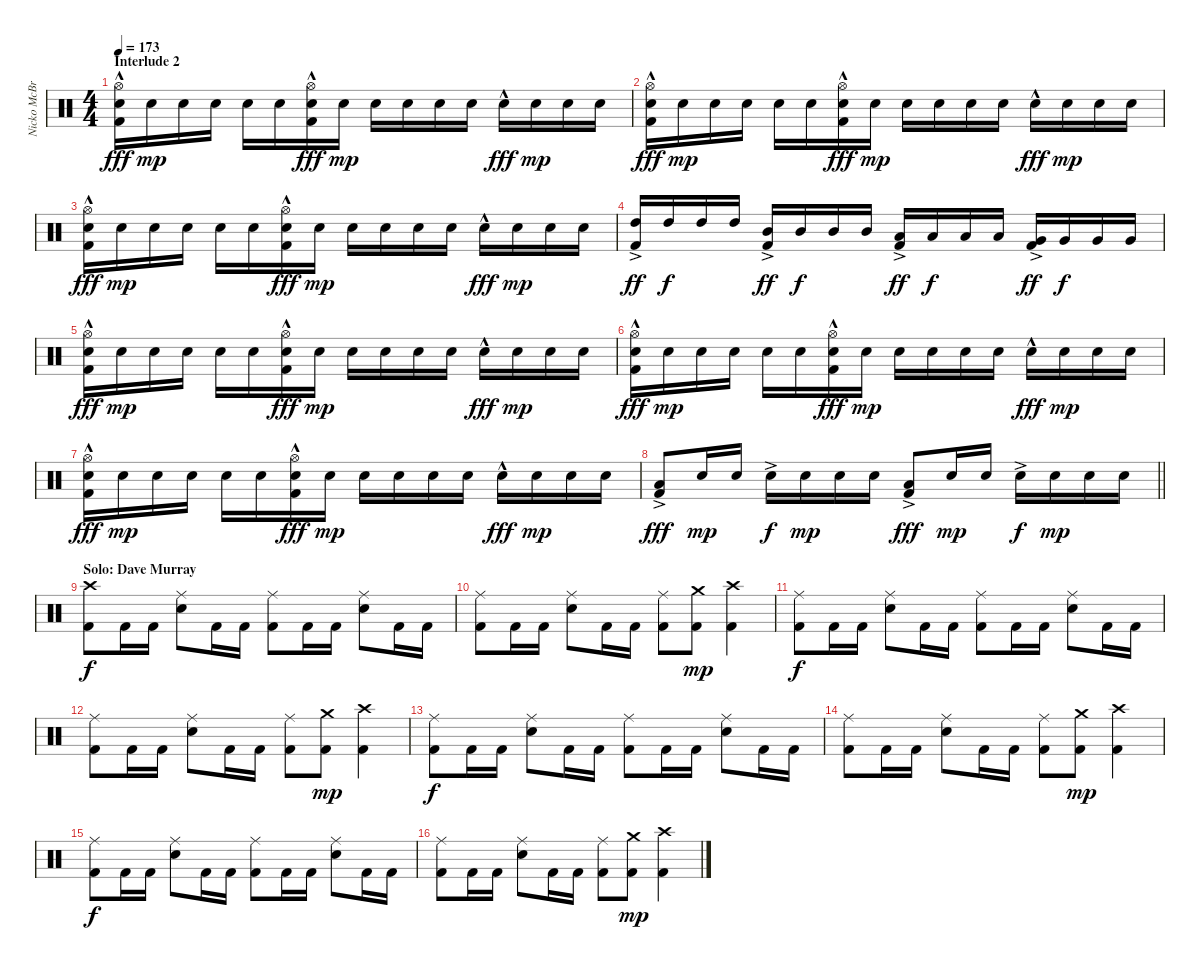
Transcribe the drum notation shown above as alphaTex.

\track ("Nicko McBrain" "Nicko McBr") {instrument percussion}
\staff {score}
\articulation defaults
\ts (4 4)
\section ("" "Interlude 2")
\tempo 173
\clef neutral
\ks c
("Hi-Hat (open)" "Electric Snare (hit)"{hac} "Kick (hit) 2").16{dy fff} "Electric Snare (hit)".16{dy mp} "Electric Snare (hit)".16 "Electric Snare (hit)".16 "Electric Snare (hit)".16 "Electric Snare (hit)".16 ("Hi-Hat (open)" "Electric Snare (hit)"{hac} "Kick (hit) 2").16{dy fff} "Electric Snare (hit)".16{dy mp} "Electric Snare (hit)".16 "Electric Snare (hit)".16 "Electric Snare (hit)".16 "Electric Snare (hit)".16 "Electric Snare (hit)"{hac}.16{dy fff} "Electric Snare (hit)".16{dy mp} "Electric Snare (hit)".16 "Electric Snare (hit)".16 |
("Hi-Hat (open)" "Electric Snare (hit)"{hac} "Kick (hit) 2").16{dy fff} "Electric Snare (hit)".16{dy mp} "Electric Snare (hit)".16 "Electric Snare (hit)".16 "Electric Snare (hit)".16 "Electric Snare (hit)".16 ("Hi-Hat (open)" "Electric Snare (hit)"{hac} "Kick (hit) 2").16{dy fff} "Electric Snare (hit)".16{dy mp} "Electric Snare (hit)".16 "Electric Snare (hit)".16 "Electric Snare (hit)".16 "Electric Snare (hit)".16 "Electric Snare (hit)"{hac}.16{dy fff} "Electric Snare (hit)".16{dy mp} "Electric Snare (hit)".16 "Electric Snare (hit)".16 |
("Hi-Hat (open)" "Electric Snare (hit)"{hac} "Kick (hit) 2").16{dy fff} "Electric Snare (hit)".16{dy mp} "Electric Snare (hit)".16 "Electric Snare (hit)".16 "Electric Snare (hit)".16 "Electric Snare (hit)".16 ("Hi-Hat (open)" "Electric Snare (hit)"{hac} "Kick (hit) 2").16{dy fff} "Electric Snare (hit)".16{dy mp} "Electric Snare (hit)".16 "Electric Snare (hit)".16 "Electric Snare (hit)".16 "Electric Snare (hit)".16 "Electric Snare (hit)"{hac}.16{dy fff} "Electric Snare (hit)".16{dy mp} "Electric Snare (hit)".16 "Electric Snare (hit)".16 |
("High Tom (hit)"{ac} "Kick (hit) 2"{ac}).16{dy ff} "High Tom (hit)".16{dy f} "High Tom (hit)".16 "High Tom (hit)".16 ("Mid Tom (hit)"{ac} "Kick (hit) 2"{ac}).16{dy ff} "Mid Tom (hit)".16{dy f} "Mid Tom (hit)".16 "Mid Tom (hit)".16 ("Low Tom (hit)"{ac} "Kick (hit) 2"{ac}).16{dy ff} "Low Tom (hit)".16{dy f} "Low Tom (hit)".16 "Low Tom (hit)".16 ("Very Low Tom (hit)"{ac} "Kick (hit) 2"{ac}).16{dy ff} "Very Low Tom (hit)".16{dy f} "Very Low Tom (hit)".16 "Very Low Tom (hit)".16 |
("Hi-Hat (open)" "Electric Snare (hit)"{hac} "Kick (hit) 2").16{dy fff} "Electric Snare (hit)".16{dy mp} "Electric Snare (hit)".16 "Electric Snare (hit)".16 "Electric Snare (hit)".16 "Electric Snare (hit)".16 ("Hi-Hat (open)" "Electric Snare (hit)"{hac} "Kick (hit) 2").16{dy fff} "Electric Snare (hit)".16{dy mp} "Electric Snare (hit)".16 "Electric Snare (hit)".16 "Electric Snare (hit)".16 "Electric Snare (hit)".16 "Electric Snare (hit)"{hac}.16{dy fff} "Electric Snare (hit)".16{dy mp} "Electric Snare (hit)".16 "Electric Snare (hit)".16 |
("Hi-Hat (open)" "Electric Snare (hit)"{hac} "Kick (hit) 2").16{dy fff} "Electric Snare (hit)".16{dy mp} "Electric Snare (hit)".16 "Electric Snare (hit)".16 "Electric Snare (hit)".16 "Electric Snare (hit)".16 ("Hi-Hat (open)" "Electric Snare (hit)"{hac} "Kick (hit) 2").16{dy fff} "Electric Snare (hit)".16{dy mp} "Electric Snare (hit)".16 "Electric Snare (hit)".16 "Electric Snare (hit)".16 "Electric Snare (hit)".16 "Electric Snare (hit)"{hac}.16{dy fff} "Electric Snare (hit)".16{dy mp} "Electric Snare (hit)".16 "Electric Snare (hit)".16 |
("Hi-Hat (open)" "Electric Snare (hit)"{hac} "Kick (hit) 2").16{dy fff} "Electric Snare (hit)".16{dy mp} "Electric Snare (hit)".16 "Electric Snare (hit)".16 "Electric Snare (hit)".16 "Electric Snare (hit)".16 ("Hi-Hat (open)" "Electric Snare (hit)"{hac} "Kick (hit) 2").16{dy fff} "Electric Snare (hit)".16{dy mp} "Electric Snare (hit)".16 "Electric Snare (hit)".16 "Electric Snare (hit)".16 "Electric Snare (hit)".16 "Electric Snare (hit)"{hac}.16{dy fff} "Electric Snare (hit)".16{dy mp} "Electric Snare (hit)".16 "Electric Snare (hit)".16 |
\barLineRight lightlight
("Low Tom (hit)"{ac} "Kick (hit) 2"{ac}).8{dy fff} "Electric Snare (hit)".16{dy mp} "Electric Snare (hit)".16 "Electric Snare (hit)"{ac}.16{dy f} "Electric Snare (hit)".16{dy mp} "Electric Snare (hit)".16 "Electric Snare (hit)".16 ("Low Tom (hit)"{ac} "Kick (hit) 2"{ac}).8{dy fff} "Electric Snare (hit)".16{dy mp} "Electric Snare (hit)".16 "Electric Snare (hit)"{ac}.16{dy f} "Electric Snare (hit)".16{dy mp} "Electric Snare (hit)".16 "Electric Snare (hit)".16 |
\section ("" "Solo: Dave Murray")
("Crash high (hit)" "Kick (hit) 2").8{dy f} "Kick (hit) 2".16 "Kick (hit) 2".16 ("Ride (middle)" "Electric Snare (hit)").8 "Kick (hit) 2".16 "Kick (hit) 2".16 ("Ride (middle)" "Kick (hit) 2").8 "Kick (hit) 2".16 "Kick (hit) 2".16 ("Ride (middle)" "Electric Snare (hit)").8 "Kick (hit) 2".16 "Kick (hit) 2".16 |
("Ride (middle)" "Kick (hit) 2").8 "Kick (hit) 2".16 "Kick (hit) 2".16 ("Ride (middle)" "Electric Snare (hit)").8 "Kick (hit) 2".16 "Kick (hit) 2".16 ("Ride (middle)" "Kick (hit) 2").8 ("Crash medium (hit)" "Kick (hit) 2").8{dy mp} ("Crash high (hit)" "Kick (hit) 2").4 |
("Ride (middle)" "Kick (hit) 2").8{dy f} "Kick (hit) 2".16 "Kick (hit) 2".16 ("Ride (middle)" "Electric Snare (hit)").8 "Kick (hit) 2".16 "Kick (hit) 2".16 ("Ride (middle)" "Kick (hit) 2").8 "Kick (hit) 2".16 "Kick (hit) 2".16 ("Ride (middle)" "Electric Snare (hit)").8 "Kick (hit) 2".16 "Kick (hit) 2".16 |
("Ride (middle)" "Kick (hit) 2").8 "Kick (hit) 2".16 "Kick (hit) 2".16 ("Ride (middle)" "Electric Snare (hit)").8 "Kick (hit) 2".16 "Kick (hit) 2".16 ("Ride (middle)" "Kick (hit) 2").8 ("Crash medium (hit)" "Kick (hit) 2").8{dy mp} ("Crash high (hit)" "Kick (hit) 2").4 |
("Ride (middle)" "Kick (hit) 2").8{dy f} "Kick (hit) 2".16 "Kick (hit) 2".16 ("Ride (middle)" "Electric Snare (hit)").8 "Kick (hit) 2".16 "Kick (hit) 2".16 ("Ride (middle)" "Kick (hit) 2").8 "Kick (hit) 2".16 "Kick (hit) 2".16 ("Ride (middle)" "Electric Snare (hit)").8 "Kick (hit) 2".16 "Kick (hit) 2".16 |
("Ride (middle)" "Kick (hit) 2").8 "Kick (hit) 2".16 "Kick (hit) 2".16 ("Ride (middle)" "Electric Snare (hit)").8 "Kick (hit) 2".16 "Kick (hit) 2".16 ("Ride (middle)" "Kick (hit) 2").8 ("Crash medium (hit)" "Kick (hit) 2").8{dy mp} ("Crash high (hit)" "Kick (hit) 2").4 |
("Ride (middle)" "Kick (hit) 2").8{dy f} "Kick (hit) 2".16 "Kick (hit) 2".16 ("Ride (middle)" "Electric Snare (hit)").8 "Kick (hit) 2".16 "Kick (hit) 2".16 ("Ride (middle)" "Kick (hit) 2").8 "Kick (hit) 2".16 "Kick (hit) 2".16 ("Ride (middle)" "Electric Snare (hit)").8 "Kick (hit) 2".16 "Kick (hit) 2".16 |
("Ride (middle)" "Kick (hit) 2").8 "Kick (hit) 2".16 "Kick (hit) 2".16 ("Ride (middle)" "Electric Snare (hit)").8 "Kick (hit) 2".16 "Kick (hit) 2".16 ("Ride (middle)" "Kick (hit) 2").8 ("Crash medium (hit)" "Kick (hit) 2").8{dy mp} ("Crash high (hit)" "Kick (hit) 2").4
